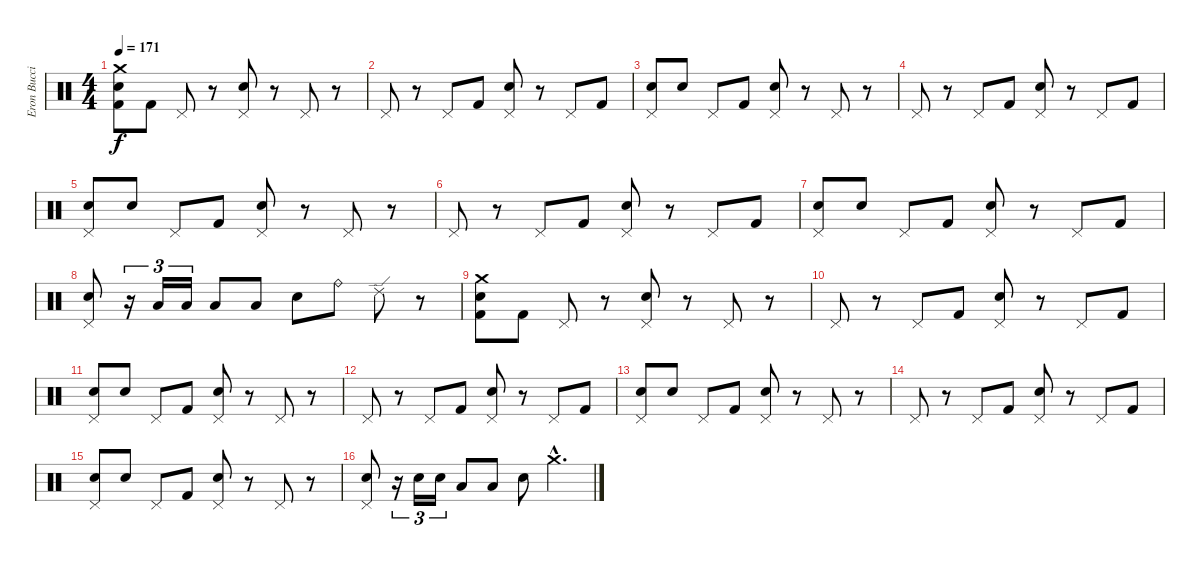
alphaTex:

\track ("Eron Bucciarelli (Drums)" "Eron Bucci") {instrument percussion}
\staff {score}
\articulation defaults
\ts (4 4)
\tempo 171
\clef neutral
\ks c
("Crash medium (hit)" "Snare (hit) 2" "Kick (hit) 2").8{dy f} "Kick (hit) 2".8 "Pedal Hi-Hat (hit)".8 r.8 ("Pedal Hi-Hat (hit)" "Snare (hit) 2").8 r.8 "Pedal Hi-Hat (hit)".8 r.8 |
"Pedal Hi-Hat (hit)".8 r.8 "Pedal Hi-Hat (hit)".8 "Kick (hit) 2".8 ("Pedal Hi-Hat (hit)" "Snare (hit) 2").8 r.8 "Pedal Hi-Hat (hit)".8 "Kick (hit) 2".8 |
("Pedal Hi-Hat (hit)" "Snare (hit) 2").8 "Snare (hit) 2".8 "Pedal Hi-Hat (hit)".8 "Kick (hit) 2".8 ("Pedal Hi-Hat (hit)" "Snare (hit) 2").8 r.8 "Pedal Hi-Hat (hit)".8 r.8 |
"Pedal Hi-Hat (hit)".8 r.8 "Pedal Hi-Hat (hit)".8 "Kick (hit) 2".8 ("Pedal Hi-Hat (hit)" "Snare (hit) 2").8 r.8 "Pedal Hi-Hat (hit)".8 "Kick (hit) 2".8 |
("Pedal Hi-Hat (hit)" "Snare (hit) 2").8 "Snare (hit) 2".8 "Pedal Hi-Hat (hit)".8 "Kick (hit) 2".8 ("Pedal Hi-Hat (hit)" "Snare (hit) 2").8 r.8 "Pedal Hi-Hat (hit)".8 r.8 |
"Pedal Hi-Hat (hit)".8 r.8 "Pedal Hi-Hat (hit)".8 "Kick (hit) 2".8 ("Pedal Hi-Hat (hit)" "Snare (hit) 2").8 r.8 "Pedal Hi-Hat (hit)".8 "Kick (hit) 2".8 |
("Pedal Hi-Hat (hit)" "Snare (hit) 2").8 "Snare (hit) 2".8 "Pedal Hi-Hat (hit)".8 "Kick (hit) 2".8 ("Pedal Hi-Hat (hit)" "Snare (hit) 2").8 r.8 "Pedal Hi-Hat (hit)".8 "Kick (hit) 2".8 |
("Pedal Hi-Hat (hit)" "Snare (hit) 2").8 r.16{tu (3 2)} "Low Tom (hit)".16{tu (3 2)} "Low Tom (hit)".16{tu (3 2)} "Low Floor Tom (hit)".8 "Low Floor Tom (hit)".8 "Snare (hit) 2".8 "Ride (bell)".8 "Ride (edge) 2".8 r.8 |
("Crash medium (hit)" "Snare (hit) 2" "Kick (hit) 2").8 "Kick (hit) 2".8 "Pedal Hi-Hat (hit)".8 r.8 ("Pedal Hi-Hat (hit)" "Snare (hit) 2").8 r.8 "Pedal Hi-Hat (hit)".8 r.8 |
"Pedal Hi-Hat (hit)".8 r.8 "Pedal Hi-Hat (hit)".8 "Kick (hit) 2".8 ("Pedal Hi-Hat (hit)" "Snare (hit) 2").8 r.8 "Pedal Hi-Hat (hit)".8 "Kick (hit) 2".8 |
("Pedal Hi-Hat (hit)" "Snare (hit) 2").8 "Snare (hit) 2".8 "Pedal Hi-Hat (hit)".8 "Kick (hit) 2".8 ("Pedal Hi-Hat (hit)" "Snare (hit) 2").8 r.8 "Pedal Hi-Hat (hit)".8 r.8 |
"Pedal Hi-Hat (hit)".8 r.8 "Pedal Hi-Hat (hit)".8 "Kick (hit) 2".8 ("Pedal Hi-Hat (hit)" "Snare (hit) 2").8 r.8 "Pedal Hi-Hat (hit)".8 "Kick (hit) 2".8 |
("Pedal Hi-Hat (hit)" "Snare (hit) 2").8 "Snare (hit) 2".8 "Pedal Hi-Hat (hit)".8 "Kick (hit) 2".8 ("Pedal Hi-Hat (hit)" "Snare (hit) 2").8 r.8 "Pedal Hi-Hat (hit)".8 r.8 |
"Pedal Hi-Hat (hit)".8 r.8 "Pedal Hi-Hat (hit)".8 "Kick (hit) 2".8 ("Pedal Hi-Hat (hit)" "Snare (hit) 2").8 r.8 "Pedal Hi-Hat (hit)".8 "Kick (hit) 2".8 |
("Pedal Hi-Hat (hit)" "Snare (hit) 2").8 "Snare (hit) 2".8 "Pedal Hi-Hat (hit)".8 "Kick (hit) 2".8 ("Pedal Hi-Hat (hit)" "Snare (hit) 2").8 r.8 "Pedal Hi-Hat (hit)".8 r.8 |
("Pedal Hi-Hat (hit)" "Snare (hit) 2").8 r.16{tu (3 2)} "Snare (hit) 2".16{tu (3 2)} "Snare (hit) 2".16{tu (3 2)} "Low Tom (hit)".8 "Low Floor Tom (hit)".8 "Snare (hit) 2".8 "Crash medium (hit)"{hac}.4{d}
